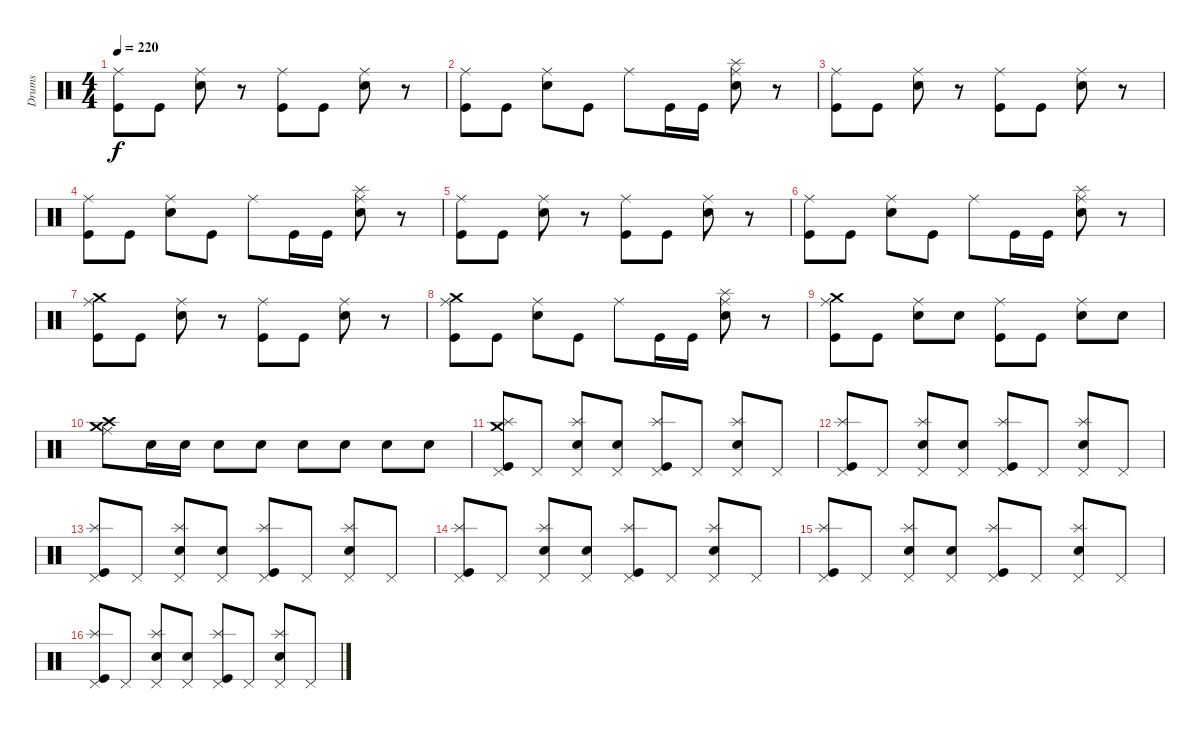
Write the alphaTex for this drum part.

\track ("Drums" "Drums") {instrument percussion}
\staff {score}
\articulation defaults
\ts (4 4)
\tempo 220
\clef neutral
\ks c
("Kick (hit)" "Ride (middle)").8{dy f} "Kick (hit)".8 ("Ride (middle)" "Electric Snare (hit)").8 r.8 ("Ride (middle)" "Kick (hit)").8 "Kick (hit)".8 ("Ride (middle)" "Electric Snare (hit)").8 r.8 |
("Ride (middle)" "Kick (hit)").8 "Kick (hit)".8 ("Electric Snare (hit)" "Ride (middle)").8 "Kick (hit)".8 "Ride (middle)".8 "Kick (hit)".16 "Kick (hit)".16 ("Splash (hit)" "Electric Snare (hit)" "Ride (middle)").8 r.8 |
("Kick (hit)" "Ride (middle)").8 "Kick (hit)".8 ("Electric Snare (hit)" "Ride (middle)").8 r.8 ("Kick (hit)" "Ride (middle)").8 "Kick (hit)".8 ("Ride (middle)" "Electric Snare (hit)").8 r.8 |
("Ride (middle)" "Kick (hit)").8 "Kick (hit)".8 ("Ride (middle)" "Electric Snare (hit)").8 "Kick (hit)".8 "Ride (middle)".8 "Kick (hit)".16 "Kick (hit)".16 ("Splash (hit)" "Electric Snare (hit)" "Ride (middle)").8 r.8 |
("Kick (hit)" "Ride (middle)").8 "Kick (hit)".8 ("Electric Snare (hit)" "Ride (middle)").8 r.8 ("Kick (hit)" "Ride (middle)").8 "Kick (hit)".8 ("Ride (middle)" "Electric Snare (hit)").8 r.8 |
("Ride (middle)" "Kick (hit)").8 "Kick (hit)".8 ("Ride (middle)" "Electric Snare (hit)").8 "Kick (hit)".8 "Ride (middle)".8 "Kick (hit)".16 "Kick (hit)".16 ("Splash (hit)" "Electric Snare (hit)" "Ride (middle)").8 r.8 |
("Kick (hit)" "Ride (middle)" "Crash medium (hit)").8 "Kick (hit)".8 ("Electric Snare (hit)" "Ride (middle)").8 r.8 ("Kick (hit)" "Ride (middle)").8 "Kick (hit)".8 ("Electric Snare (hit)" "Ride (middle)").8 r.8 |
("Kick (hit)" "Ride (middle)" "Crash medium (hit)").8 "Kick (hit)".8 ("Ride (middle)" "Electric Snare (hit)").8 "Kick (hit)".8 "Ride (middle)".8 "Kick (hit)".16 "Kick (hit)".16 ("Splash (hit)" "Ride (middle)" "Electric Snare (hit)").8 r.8 |
("Crash medium (hit)" "Ride (middle)" "Kick (hit)").8 "Kick (hit)".8 ("Electric Snare (hit)" "Ride (middle)").8 "Electric Snare (hit)".8 ("Kick (hit)" "Ride (middle)").8 "Kick (hit)".8 ("Electric Snare (hit)" "Ride (middle)").8 "Electric Snare (hit)".8 |
("Ride (middle)" "Crash high (hit)" "Crash medium (hit)").8 "Electric Snare (hit)".16 "Electric Snare (hit)".16 "Electric Snare (hit)".8 "Electric Snare (hit)".8 "Electric Snare (hit)".8 "Electric Snare (hit)".8 "Electric Snare (hit)".8 "Electric Snare (hit)".8 |
("Pedal Hi-Hat (hit)" "Kick (hit)" "Splash (hit)" "Crash medium (hit)").8 "Pedal Hi-Hat (hit)".8 ("Electric Snare (hit)" "Pedal Hi-Hat (hit)" "Splash (hit)").8 ("Pedal Hi-Hat (hit)" "Electric Snare (hit)").8 ("Pedal Hi-Hat (hit)" "Kick (hit)" "Splash (hit)").8 "Pedal Hi-Hat (hit)".8 ("Pedal Hi-Hat (hit)" "Electric Snare (hit)" "Splash (hit)").8 "Pedal Hi-Hat (hit)".8 |
("Splash (hit)" "Pedal Hi-Hat (hit)" "Kick (hit)").8 "Pedal Hi-Hat (hit)".8 ("Splash (hit)" "Pedal Hi-Hat (hit)" "Electric Snare (hit)").8 ("Electric Snare (hit)" "Pedal Hi-Hat (hit)").8 ("Splash (hit)" "Kick (hit)" "Pedal Hi-Hat (hit)").8 "Pedal Hi-Hat (hit)".8 ("Splash (hit)" "Electric Snare (hit)" "Pedal Hi-Hat (hit)").8 "Pedal Hi-Hat (hit)".8 |
("Pedal Hi-Hat (hit)" "Kick (hit)" "Splash (hit)").8 "Pedal Hi-Hat (hit)".8 ("Splash (hit)" "Pedal Hi-Hat (hit)" "Electric Snare (hit)").8 ("Electric Snare (hit)" "Pedal Hi-Hat (hit)").8 ("Splash (hit)" "Kick (hit)" "Pedal Hi-Hat (hit)").8 "Pedal Hi-Hat (hit)".8 ("Splash (hit)" "Electric Snare (hit)" "Pedal Hi-Hat (hit)").8 "Pedal Hi-Hat (hit)".8 |
("Splash (hit)" "Pedal Hi-Hat (hit)" "Kick (hit)").8 "Pedal Hi-Hat (hit)".8 ("Splash (hit)" "Pedal Hi-Hat (hit)" "Electric Snare (hit)").8 ("Electric Snare (hit)" "Pedal Hi-Hat (hit)").8 ("Splash (hit)" "Kick (hit)" "Pedal Hi-Hat (hit)").8 "Pedal Hi-Hat (hit)".8 ("Splash (hit)" "Electric Snare (hit)" "Pedal Hi-Hat (hit)").8 "Pedal Hi-Hat (hit)".8 |
("Splash (hit)" "Kick (hit)" "Pedal Hi-Hat (hit)").8 "Pedal Hi-Hat (hit)".8 ("Electric Snare (hit)" "Pedal Hi-Hat (hit)" "Splash (hit)").8 ("Electric Snare (hit)" "Pedal Hi-Hat (hit)").8 ("Pedal Hi-Hat (hit)" "Kick (hit)" "Splash (hit)").8 "Pedal Hi-Hat (hit)".8 ("Pedal Hi-Hat (hit)" "Electric Snare (hit)" "Splash (hit)").8 "Pedal Hi-Hat (hit)".8 |
("Kick (hit)" "Pedal Hi-Hat (hit)" "Splash (hit)").8 "Pedal Hi-Hat (hit)".8 ("Splash (hit)" "Pedal Hi-Hat (hit)" "Electric Snare (hit)").8 ("Electric Snare (hit)" "Pedal Hi-Hat (hit)").8 ("Splash (hit)" "Kick (hit)" "Pedal Hi-Hat (hit)").8 "Pedal Hi-Hat (hit)".8 ("Pedal Hi-Hat (hit)" "Electric Snare (hit)" "Splash (hit)").8 "Pedal Hi-Hat (hit)".8
